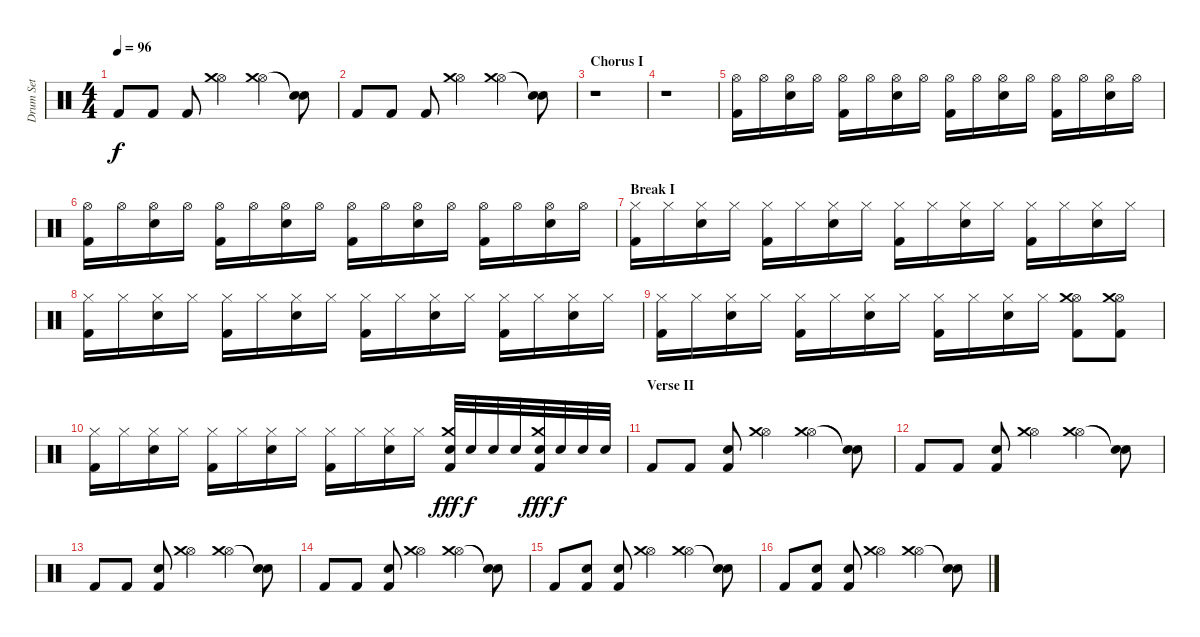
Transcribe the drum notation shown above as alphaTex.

\track ("Drum Set" "Drum Set") {instrument percussion}
\staff {score}
\articulation defaults
\ts (4 4)
\tempo 96
\clef neutral
\ks c "Kick (hit) 2".8{dy f} "Kick (hit) 2".8 "Kick (hit) 2".8
("Hi-Hat (open)" "Crash medium (hit)").4 ("Hi-Hat (open)" "Crash medium (hit)").4 ("Snare (hit)"{t} "Snare (hit)"{t}).8 |
"Kick (hit) 2".8 "Kick (hit) 2".8 "Kick (hit) 2".8 ("Hi-Hat (open)" "Crash medium (hit)").4 ("Hi-Hat (open)" "Crash medium (hit)").4 ("Snare (hit)"{t} "Snare (hit)"{t}).8 |
\section ("" "Chorus I")
r.1 |
r.1 |
("Hi-Hat (open)" "Kick (hit) 2").16 "Hi-Hat (open)".16 ("Hi-Hat (open)" "Snare (hit) 2").16 "Hi-Hat (open)".16 ("Hi-Hat (open)" "Kick (hit) 2").16 "Hi-Hat (open)".16 ("Hi-Hat (open)" "Snare (hit) 2").16 "Hi-Hat (open)".16 ("Hi-Hat (open)" "Kick (hit) 2").16 "Hi-Hat (open)".16 ("Hi-Hat (open)" "Snare (hit) 2").16 "Hi-Hat (open)".16 ("Hi-Hat (open)" "Kick (hit) 2").16 "Hi-Hat (open)".16 ("Hi-Hat (open)" "Snare (hit) 2").16 "Hi-Hat (open)".16 |
("Hi-Hat (open)" "Kick (hit) 2").16 "Hi-Hat (open)".16 ("Hi-Hat (open)" "Snare (hit) 2").16 "Hi-Hat (open)".16 ("Hi-Hat (open)" "Kick (hit) 2").16 "Hi-Hat (open)".16 ("Hi-Hat (open)" "Snare (hit) 2").16 "Hi-Hat (open)".16 ("Hi-Hat (open)" "Kick (hit) 2").16 "Hi-Hat (open)".16 ("Hi-Hat (open)" "Snare (hit) 2").16 "Hi-Hat (open)".16 ("Hi-Hat (open)" "Kick (hit) 2").16 "Hi-Hat (open)".16 ("Hi-Hat (open)" "Snare (hit) 2").16 "Hi-Hat (open)".16 |
\section ("" "Break I")
("Hi-Hat (closed)" "Kick (hit) 2").16 "Hi-Hat (closed)".16 ("Hi-Hat (closed)" "Snare (hit) 2").16 "Hi-Hat (closed)".16 ("Hi-Hat (closed)" "Kick (hit) 2").16 "Hi-Hat (closed)".16 ("Hi-Hat (closed)" "Snare (hit) 2").16 "Hi-Hat (closed)".16 ("Hi-Hat (closed)" "Kick (hit) 2").16 "Hi-Hat (closed)".16 ("Hi-Hat (closed)" "Snare (hit) 2").16 "Hi-Hat (closed)".16 ("Hi-Hat (closed)" "Kick (hit) 2").16 "Hi-Hat (closed)".16 ("Hi-Hat (closed)" "Snare (hit) 2").16 "Hi-Hat (closed)".16 |
("Hi-Hat (closed)" "Kick (hit) 2").16 "Hi-Hat (closed)".16 ("Hi-Hat (closed)" "Snare (hit) 2").16 "Hi-Hat (closed)".16 ("Hi-Hat (closed)" "Kick (hit) 2").16 "Hi-Hat (closed)".16 ("Hi-Hat (closed)" "Snare (hit) 2").16 "Hi-Hat (closed)".16 ("Hi-Hat (closed)" "Kick (hit) 2").16 "Hi-Hat (closed)".16 ("Hi-Hat (closed)" "Snare (hit) 2").16 "Hi-Hat (closed)".16 ("Hi-Hat (closed)" "Kick (hit) 2").16 "Hi-Hat (closed)".16 ("Hi-Hat (closed)" "Snare (hit) 2").16 "Hi-Hat (closed)".16 |
("Hi-Hat (closed)" "Kick (hit) 2").16 "Hi-Hat (closed)".16 ("Hi-Hat (closed)" "Snare (hit) 2").16 "Hi-Hat (closed)".16 ("Hi-Hat (closed)" "Kick (hit) 2").16 "Hi-Hat (closed)".16 ("Hi-Hat (closed)" "Snare (hit) 2").16 "Hi-Hat (closed)".16 ("Hi-Hat (closed)" "Kick (hit) 2").16 "Hi-Hat (closed)".16 ("Hi-Hat (closed)" "Snare (hit) 2").16 "Hi-Hat (closed)".16 ("Hi-Hat (open)" "Crash medium (hit)" "Kick (hit) 2").8 ("Hi-Hat (open)" "Crash medium (hit)" "Kick (hit) 2").8 |
("Hi-Hat (closed)" "Kick (hit) 2").16 "Hi-Hat (closed)".16 ("Hi-Hat (closed)" "Snare (hit) 2").16 "Hi-Hat (closed)".16 ("Hi-Hat (closed)" "Kick (hit) 2").16 "Hi-Hat (closed)".16 ("Hi-Hat (closed)" "Snare (hit) 2").16 "Hi-Hat (closed)".16 ("Hi-Hat (closed)" "Kick (hit) 2").16 "Hi-Hat (closed)".16 ("Hi-Hat (closed)" "Snare (hit) 2").16 "Hi-Hat (closed)".16 ("Snare (hit) 2" "Crash medium (hit)" "Kick (hit) 2").32{dy fff} "Snare (hit) 2".32{dy f} "Snare (hit) 2".32 "Snare (hit) 2".32 ("Snare (hit) 2" "Crash medium (hit)" "Kick (hit) 2").32{dy fff} "Snare (hit) 2".32{dy f} "Snare (hit) 2".32 "Snare (hit) 2".32 |
\section ("" "Verse II")
"Kick (hit) 2".8 "Kick (hit) 2".8 ("Snare (hit) 2" "Kick (hit) 2").8 ("Hi-Hat (open)" "Crash medium (hit)").4 ("Hi-Hat (open)" "Crash medium (hit)").4 ("Snare (hit)"{t} "Snare (hit)"{t}).8 |
"Kick (hit) 2".8 "Kick (hit) 2".8 ("Snare (hit) 2" "Kick (hit) 2").8 ("Hi-Hat (open)" "Crash medium (hit)").4 ("Hi-Hat (open)" "Crash medium (hit)").4 ("Snare (hit)"{t} "Snare (hit)"{t}).8 |
"Kick (hit) 2".8 "Kick (hit) 2".8 ("Snare (hit) 2" "Kick (hit) 2").8 ("Hi-Hat (open)" "Crash medium (hit)").4 ("Hi-Hat (open)" "Crash medium (hit)").4 ("Snare (hit)"{t} "Snare (hit)"{t}).8 |
"Kick (hit) 2".8 "Kick (hit) 2".8 ("Snare (hit) 2" "Kick (hit) 2").8 ("Hi-Hat (open)" "Crash medium (hit)").4 ("Hi-Hat (open)" "Crash medium (hit)").4 ("Snare (hit)"{t} "Snare (hit)"{t}).8 |
"Kick (hit) 2".8 ("Snare (hit) 2" "Kick (hit) 2").8 ("Snare (hit) 2" "Kick (hit) 2").8 ("Hi-Hat (open)" "Crash medium (hit)").4 ("Hi-Hat (open)" "Crash medium (hit)").4 ("Snare (hit)"{t} "Snare (hit)"{t}).8 |
"Kick (hit) 2".8 ("Snare (hit) 2" "Kick (hit) 2").8 ("Snare (hit) 2" "Kick (hit) 2").8 ("Hi-Hat (open)" "Crash medium (hit)").4 ("Hi-Hat (open)" "Crash medium (hit)").4 ("Snare (hit)"{t} "Snare (hit)"{t}).8
